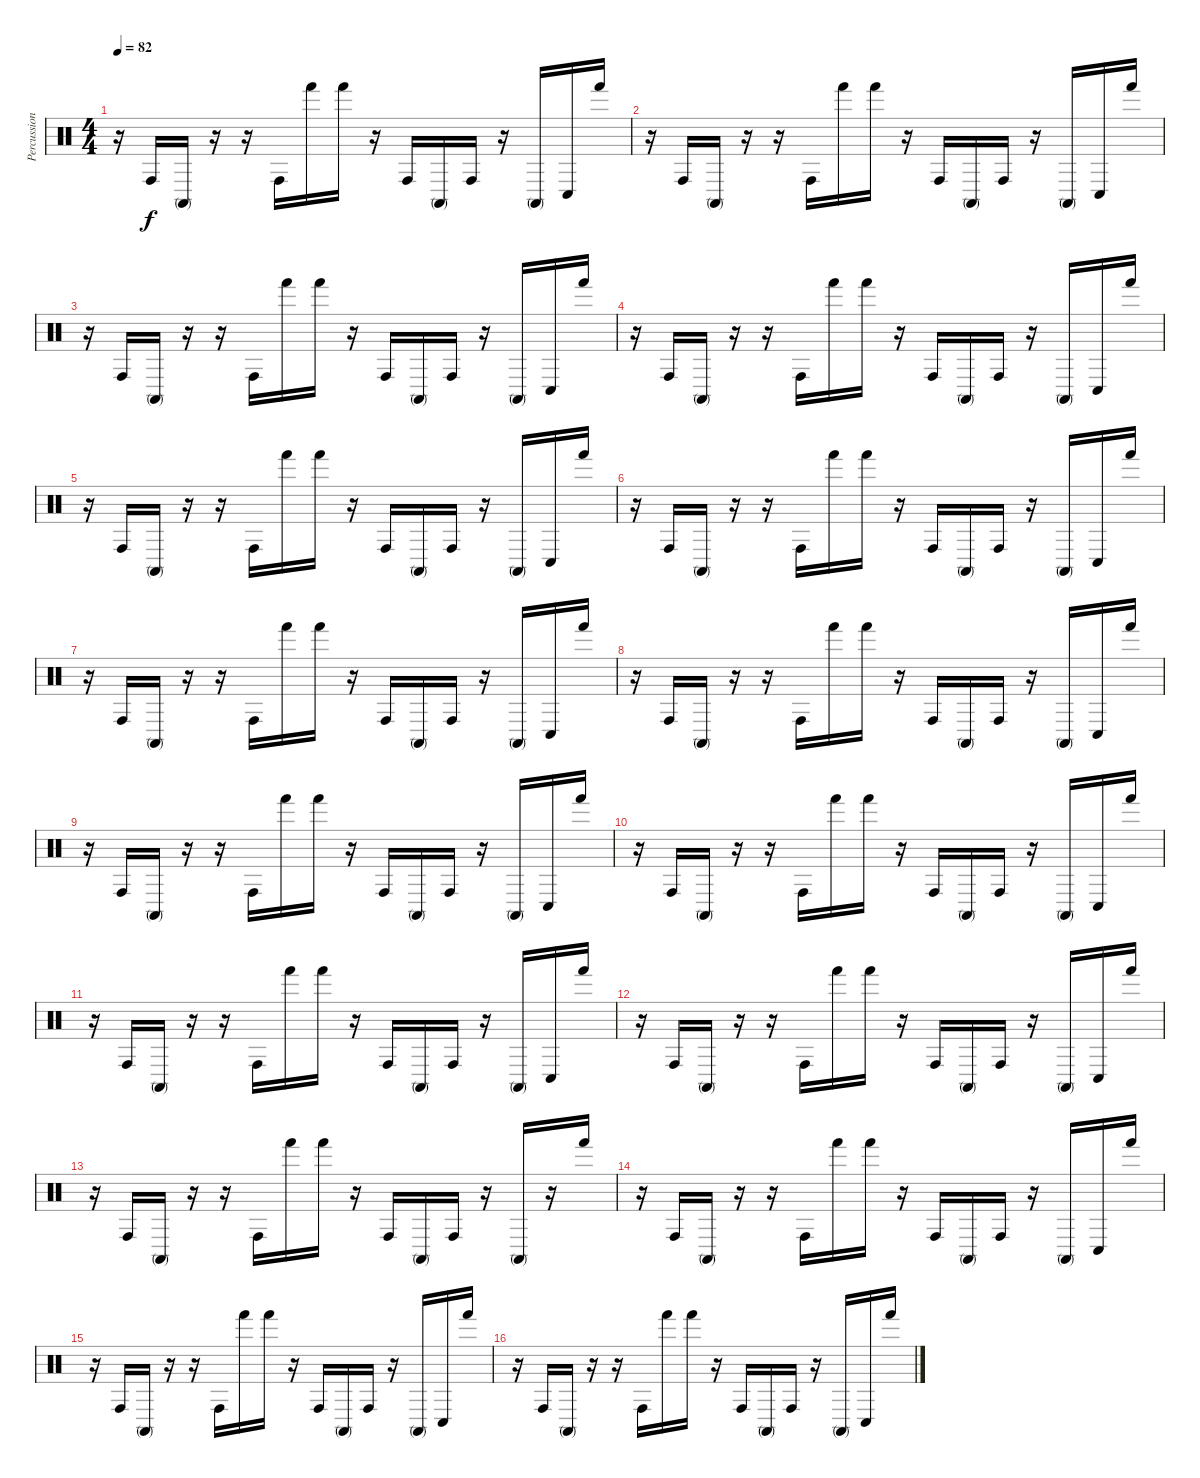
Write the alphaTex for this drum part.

\track ("Percussion" "Percussion") {instrument percussion}
\staff {score}
\articulation defaults
\ts (4 4)
\tempo 82
\clef neutral
\ks c
r.16{dy f} "Conga high (hit)".16 "Conga high (mute)".16 r.16 r.16 "Conga high (hit)".16 "Hand (hit)".16 "Hand (hit)".16 r.16 "Conga high (hit)".16 "Conga high (mute)".16 "Conga high (hit)".16 r.16 "Conga high (mute)".16 "Conga low (hit)".16 "Hand (hit)".16 |
r.16 "Conga high (hit)".16 "Conga high (mute)".16 r.16 r.16 "Conga high (hit)".16 "Hand (hit)".16 "Hand (hit)".16 r.16 "Conga high (hit)".16 "Conga high (mute)".16 "Conga high (hit)".16 r.16 "Conga high (mute)".16 "Conga low (hit)".16 "Hand (hit)".16 |
r.16 "Conga high (hit)".16 "Conga high (mute)".16 r.16 r.16 "Conga high (hit)".16 "Hand (hit)".16 "Hand (hit)".16 r.16 "Conga high (hit)".16 "Conga high (mute)".16 "Conga high (hit)".16 r.16 "Conga high (mute)".16 "Conga low (hit)".16 "Hand (hit)".16 |
r.16 "Conga high (hit)".16 "Conga high (mute)".16 r.16 r.16 "Conga high (hit)".16 "Hand (hit)".16 "Hand (hit)".16 r.16 "Conga high (hit)".16 "Conga high (mute)".16 "Conga high (hit)".16 r.16 "Conga high (mute)".16 "Conga low (hit)".16 "Hand (hit)".16 |
r.16 "Conga high (hit)".16 "Conga high (mute)".16 r.16 r.16 "Conga high (hit)".16 "Hand (hit)".16 "Hand (hit)".16 r.16 "Conga high (hit)".16 "Conga high (mute)".16 "Conga high (hit)".16 r.16 "Conga high (mute)".16 "Conga low (hit)".16 "Hand (hit)".16 |
r.16 "Conga high (hit)".16 "Conga high (mute)".16 r.16 r.16 "Conga high (hit)".16 "Hand (hit)".16 "Hand (hit)".16 r.16 "Conga high (hit)".16 "Conga high (mute)".16 "Conga high (hit)".16 r.16 "Conga high (mute)".16 "Conga low (hit)".16 "Hand (hit)".16 |
r.16 "Conga high (hit)".16 "Conga high (mute)".16 r.16 r.16 "Conga high (hit)".16 "Hand (hit)".16 "Hand (hit)".16 r.16 "Conga high (hit)".16 "Conga high (mute)".16 "Conga high (hit)".16 r.16 "Conga high (mute)".16 "Conga low (hit)".16 "Hand (hit)".16 |
r.16 "Conga high (hit)".16 "Conga high (mute)".16 r.16 r.16 "Conga high (hit)".16 "Hand (hit)".16 "Hand (hit)".16 r.16 "Conga high (hit)".16 "Conga high (mute)".16 "Conga high (hit)".16 r.16 "Conga high (mute)".16 "Conga low (hit)".16 "Hand (hit)".16 |
r.16 "Conga high (hit)".16 "Conga high (mute)".16 r.16 r.16 "Conga high (hit)".16 "Hand (hit)".16 "Hand (hit)".16 r.16 "Conga high (hit)".16 "Conga high (mute)".16 "Conga high (hit)".16 r.16 "Conga high (mute)".16 "Conga low (hit)".16 "Hand (hit)".16 |
r.16 "Conga high (hit)".16 "Conga high (mute)".16 r.16 r.16 "Conga high (hit)".16 "Hand (hit)".16 "Hand (hit)".16 r.16 "Conga high (hit)".16 "Conga high (mute)".16 "Conga high (hit)".16 r.16 "Conga high (mute)".16 "Conga low (hit)".16 "Hand (hit)".16 |
r.16 "Conga high (hit)".16 "Conga high (mute)".16 r.16 r.16 "Conga high (hit)".16 "Hand (hit)".16 "Hand (hit)".16 r.16 "Conga high (hit)".16 "Conga high (mute)".16 "Conga high (hit)".16 r.16 "Conga high (mute)".16 "Conga low (hit)".16 "Hand (hit)".16 |
r.16 "Conga high (hit)".16 "Conga high (mute)".16 r.16 r.16 "Conga high (hit)".16 "Hand (hit)".16 "Hand (hit)".16 r.16 "Conga high (hit)".16 "Conga high (mute)".16 "Conga high (hit)".16 r.16 "Conga high (mute)".16 "Conga low (hit)".16 "Hand (hit)".16 |
r.16 "Conga high (hit)".16 "Conga high (mute)".16 r.16 r.16 "Conga high (hit)".16 "Hand (hit)".16 "Hand (hit)".16 r.16 "Conga high (hit)".16 "Conga high (mute)".16 "Conga high (hit)".16 r.16 "Conga high (mute)".16 r.16 "Hand (hit)".16 |
r.16 "Conga high (hit)".16 "Conga high (mute)".16 r.16 r.16 "Conga high (hit)".16 "Hand (hit)".16 "Hand (hit)".16 r.16 "Conga high (hit)".16 "Conga high (mute)".16 "Conga high (hit)".16 r.16 "Conga high (mute)".16 "Conga low (hit)".16 "Hand (hit)".16 |
r.16 "Conga high (hit)".16 "Conga high (mute)".16 r.16 r.16 "Conga high (hit)".16 "Hand (hit)".16 "Hand (hit)".16 r.16 "Conga high (hit)".16 "Conga high (mute)".16 "Conga high (hit)".16 r.16 "Conga high (mute)".16 "Conga low (hit)".16 "Hand (hit)".16 |
r.16 "Conga high (hit)".16 "Conga high (mute)".16 r.16 r.16 "Conga high (hit)".16 "Hand (hit)".16 "Hand (hit)".16 r.16 "Conga high (hit)".16 "Conga high (mute)".16 "Conga high (hit)".16 r.16 "Conga high (mute)".16 "Conga low (hit)".16 "Hand (hit)".16
